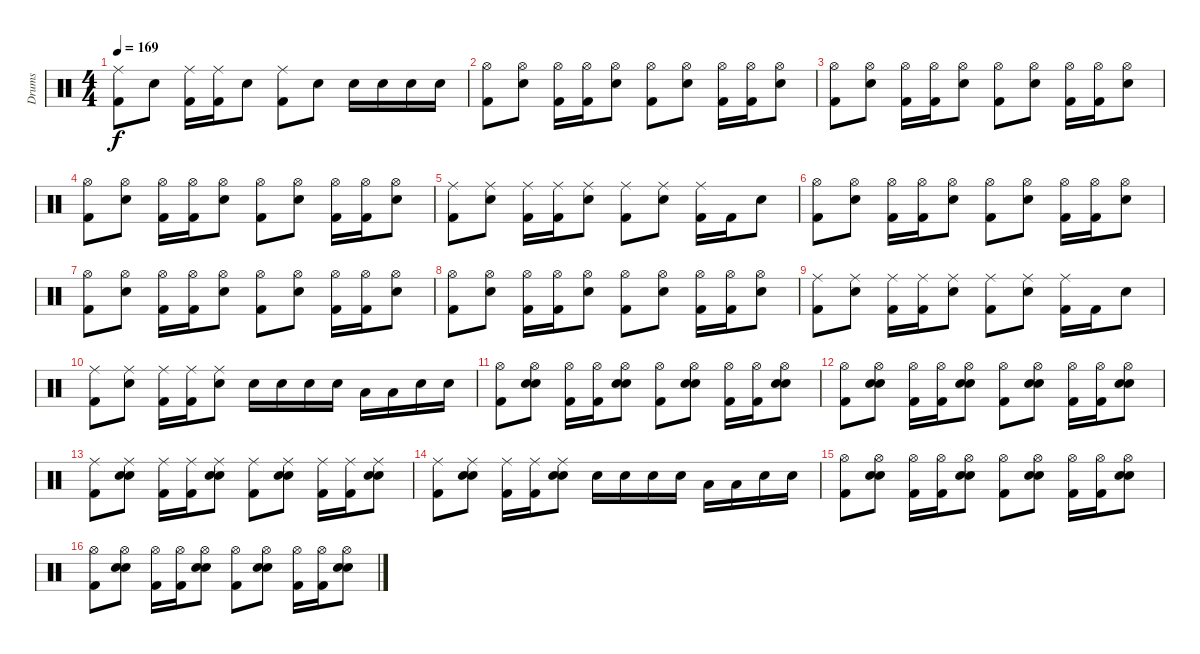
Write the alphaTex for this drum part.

\track ("Drums" "Drums") {instrument percussion}
\staff {score}
\articulation defaults
\ts (4 4)
\tempo 169
\clef neutral
\ks c
("Ride (middle)" "Kick (hit) 2").8{dy f} "Electric Snare (hit)".8 ("Ride (middle)" "Kick (hit) 2").16 ("Ride (middle)" "Kick (hit) 2").16 "Electric Snare (hit)".8 ("Ride (middle)" "Kick (hit) 2").8 "Electric Snare (hit)".8 "Electric Snare (hit)".16 "Electric Snare (hit)".16 "Electric Snare (hit)".16 "Electric Snare (hit)".16 |
("Hi-Hat (open)" "Kick (hit) 2").8 ("Hi-Hat (open)" "Electric Snare (hit)").8 ("Hi-Hat (open)" "Kick (hit) 2").16 ("Hi-Hat (open)" "Kick (hit) 2").16 ("Hi-Hat (open)" "Electric Snare (hit)").8 ("Hi-Hat (open)" "Kick (hit) 2").8 ("Hi-Hat (open)" "Electric Snare (hit)").8 ("Hi-Hat (open)" "Kick (hit) 2").16 ("Hi-Hat (open)" "Kick (hit) 2").16 ("Hi-Hat (open)" "Electric Snare (hit)").8 |
("Hi-Hat (open)" "Kick (hit) 2").8 ("Hi-Hat (open)" "Electric Snare (hit)").8 ("Hi-Hat (open)" "Kick (hit) 2").16 ("Hi-Hat (open)" "Kick (hit) 2").16 ("Hi-Hat (open)" "Electric Snare (hit)").8 ("Hi-Hat (open)" "Kick (hit) 2").8 ("Hi-Hat (open)" "Electric Snare (hit)").8 ("Hi-Hat (open)" "Kick (hit) 2").16 ("Hi-Hat (open)" "Kick (hit) 2").16 ("Hi-Hat (open)" "Electric Snare (hit)").8 |
("Hi-Hat (open)" "Kick (hit) 2").8 ("Hi-Hat (open)" "Electric Snare (hit)").8 ("Hi-Hat (open)" "Kick (hit) 2").16 ("Hi-Hat (open)" "Kick (hit) 2").16 ("Hi-Hat (open)" "Electric Snare (hit)").8 ("Hi-Hat (open)" "Kick (hit) 2").8 ("Hi-Hat (open)" "Electric Snare (hit)").8 ("Hi-Hat (open)" "Kick (hit) 2").16 ("Hi-Hat (open)" "Kick (hit) 2").16 ("Hi-Hat (open)" "Electric Snare (hit)").8 |
("Ride (middle)" "Kick (hit) 2").8 ("Ride (middle)" "Electric Snare (hit)").8 ("Ride (middle)" "Kick (hit) 2").16 ("Ride (middle)" "Kick (hit) 2").16 ("Ride (middle)" "Electric Snare (hit)").8 ("Ride (middle)" "Kick (hit) 2").8 ("Ride (middle)" "Electric Snare (hit)").8 ("Ride (middle)" "Kick (hit) 2").16 "Kick (hit) 2".16 "Electric Snare (hit)".8 |
("Hi-Hat (open)" "Kick (hit) 2").8 ("Hi-Hat (open)" "Electric Snare (hit)").8 ("Hi-Hat (open)" "Kick (hit) 2").16 ("Hi-Hat (open)" "Kick (hit) 2").16 ("Hi-Hat (open)" "Electric Snare (hit)").8 ("Hi-Hat (open)" "Kick (hit) 2").8 ("Hi-Hat (open)" "Electric Snare (hit)").8 ("Hi-Hat (open)" "Kick (hit) 2").16 ("Hi-Hat (open)" "Kick (hit) 2").16 ("Hi-Hat (open)" "Electric Snare (hit)").8 |
("Hi-Hat (open)" "Kick (hit) 2").8 ("Hi-Hat (open)" "Electric Snare (hit)").8 ("Hi-Hat (open)" "Kick (hit) 2").16 ("Hi-Hat (open)" "Kick (hit) 2").16 ("Hi-Hat (open)" "Electric Snare (hit)").8 ("Hi-Hat (open)" "Kick (hit) 2").8 ("Hi-Hat (open)" "Electric Snare (hit)").8 ("Hi-Hat (open)" "Kick (hit) 2").16 ("Hi-Hat (open)" "Kick (hit) 2").16 ("Hi-Hat (open)" "Electric Snare (hit)").8 |
("Hi-Hat (open)" "Kick (hit) 2").8 ("Hi-Hat (open)" "Electric Snare (hit)").8 ("Hi-Hat (open)" "Kick (hit) 2").16 ("Hi-Hat (open)" "Kick (hit) 2").16 ("Hi-Hat (open)" "Electric Snare (hit)").8 ("Hi-Hat (open)" "Kick (hit) 2").8 ("Hi-Hat (open)" "Electric Snare (hit)").8 ("Hi-Hat (open)" "Kick (hit) 2").16 ("Hi-Hat (open)" "Kick (hit) 2").16 ("Hi-Hat (open)" "Electric Snare (hit)").8 |
("Ride (middle)" "Kick (hit) 2").8 ("Ride (middle)" "Electric Snare (hit)").8 ("Ride (middle)" "Kick (hit) 2").16 ("Ride (middle)" "Kick (hit) 2").16 ("Ride (middle)" "Electric Snare (hit)").8 ("Ride (middle)" "Kick (hit) 2").8 ("Ride (middle)" "Electric Snare (hit)").8 ("Ride (middle)" "Kick (hit) 2").16 "Kick (hit) 2".16 "Electric Snare (hit)".8 |
("Ride (middle)" "Kick (hit) 2").8 ("Ride (middle)" "Electric Snare (hit)").8 ("Ride (middle)" "Kick (hit) 2").16 ("Ride (middle)" "Kick (hit) 2").16 ("Ride (middle)" "Electric Snare (hit)").8 "Electric Snare (hit)".16 "Electric Snare (hit)".16 "Electric Snare (hit)".16 "Electric Snare (hit)".16 "Low Tom (hit)".16 "Low Tom (hit)".16 "Electric Snare (hit)".16 "Electric Snare (hit)".16 |
("Hi-Hat (open)" "Kick (hit) 2").8 ("Hand Clap (hit)" "Hi-Hat (open)" "Electric Snare (hit)").8 ("Hi-Hat (open)" "Kick (hit) 2").16 ("Hi-Hat (open)" "Kick (hit) 2").16 ("Hand Clap (hit)" "Hi-Hat (open)" "Electric Snare (hit)").8 ("Hi-Hat (open)" "Kick (hit) 2").8 ("Hand Clap (hit)" "Hi-Hat (open)" "Electric Snare (hit)").8 ("Hi-Hat (open)" "Kick (hit) 2").16 ("Hi-Hat (open)" "Kick (hit) 2").16 ("Hand Clap (hit)" "Hi-Hat (open)" "Electric Snare (hit)").8 |
("Hi-Hat (open)" "Kick (hit) 2").8 ("Hand Clap (hit)" "Hi-Hat (open)" "Electric Snare (hit)").8 ("Hi-Hat (open)" "Kick (hit) 2").16 ("Hi-Hat (open)" "Kick (hit) 2").16 ("Hand Clap (hit)" "Hi-Hat (open)" "Electric Snare (hit)").8 ("Hi-Hat (open)" "Kick (hit) 2").8 ("Hand Clap (hit)" "Hi-Hat (open)" "Electric Snare (hit)").8 ("Hi-Hat (open)" "Kick (hit) 2").16 ("Hi-Hat (open)" "Kick (hit) 2").16 ("Hand Clap (hit)" "Hi-Hat (open)" "Electric Snare (hit)").8 |
("Ride (middle)" "Kick (hit) 2").8 ("Hand Clap (hit)" "Ride (middle)" "Electric Snare (hit)").8 ("Ride (middle)" "Kick (hit) 2").16 ("Ride (middle)" "Kick (hit) 2").16 ("Hand Clap (hit)" "Ride (middle)" "Electric Snare (hit)").8 ("Ride (middle)" "Kick (hit) 2").8 ("Hand Clap (hit)" "Ride (middle)" "Electric Snare (hit)").8 ("Ride (middle)" "Kick (hit) 2").16 ("Ride (middle)" "Kick (hit) 2").16 ("Hand Clap (hit)" "Ride (middle)" "Electric Snare (hit)").8 |
("Ride (middle)" "Kick (hit) 2").8 ("Hand Clap (hit)" "Ride (middle)" "Electric Snare (hit)").8 ("Ride (middle)" "Kick (hit) 2").16 ("Ride (middle)" "Kick (hit) 2").16 ("Hand Clap (hit)" "Ride (middle)" "Electric Snare (hit)").8 "Electric Snare (hit)".16 "Electric Snare (hit)".16 "Electric Snare (hit)".16 "Electric Snare (hit)".16 "Low Tom (hit)".16 "Low Tom (hit)".16 "Electric Snare (hit)".16 "Electric Snare (hit)".16 |
("Hi-Hat (open)" "Kick (hit) 2").8 ("Hand Clap (hit)" "Hi-Hat (open)" "Electric Snare (hit)").8 ("Hi-Hat (open)" "Kick (hit) 2").16 ("Hi-Hat (open)" "Kick (hit) 2").16 ("Hand Clap (hit)" "Hi-Hat (open)" "Electric Snare (hit)").8 ("Hi-Hat (open)" "Kick (hit) 2").8 ("Hand Clap (hit)" "Hi-Hat (open)" "Electric Snare (hit)").8 ("Hi-Hat (open)" "Kick (hit) 2").16 ("Hi-Hat (open)" "Kick (hit) 2").16 ("Hand Clap (hit)" "Hi-Hat (open)" "Electric Snare (hit)").8 |
("Hi-Hat (open)" "Kick (hit) 2").8 ("Hand Clap (hit)" "Hi-Hat (open)" "Electric Snare (hit)").8 ("Hi-Hat (open)" "Kick (hit) 2").16 ("Hi-Hat (open)" "Kick (hit) 2").16 ("Hand Clap (hit)" "Hi-Hat (open)" "Electric Snare (hit)").8 ("Hi-Hat (open)" "Kick (hit) 2").8 ("Hand Clap (hit)" "Hi-Hat (open)" "Electric Snare (hit)").8 ("Hi-Hat (open)" "Kick (hit) 2").16 ("Hi-Hat (open)" "Kick (hit) 2").16 ("Hand Clap (hit)" "Hi-Hat (open)" "Electric Snare (hit)").8
